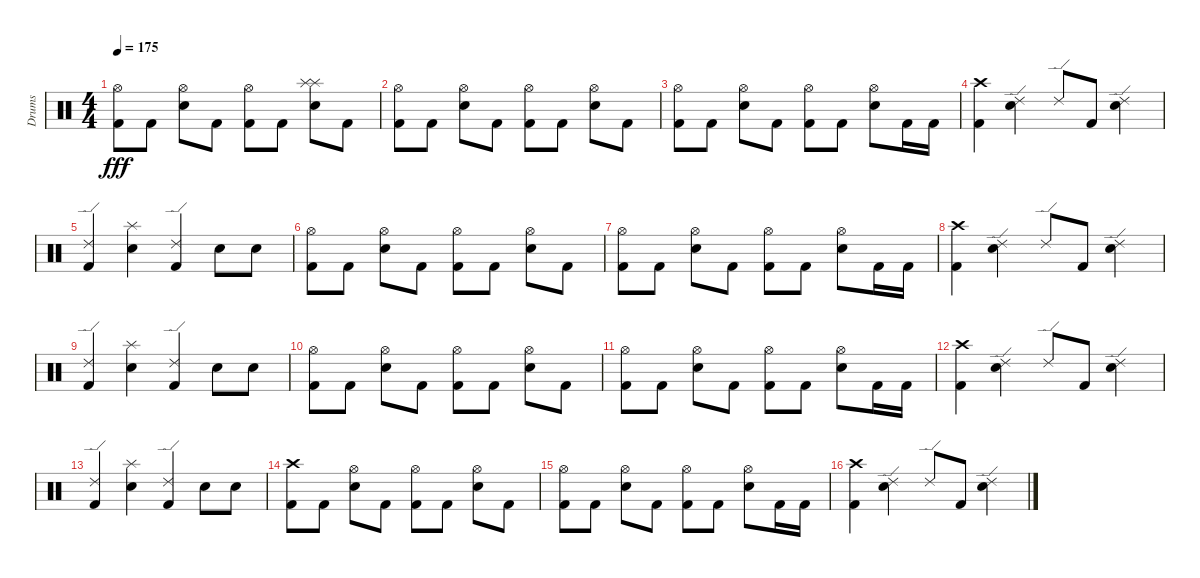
\track ("Drums" "Drums") {instrument percussion}
\staff {score}
\articulation defaults
\ts (4 4)
\tempo 175
\clef neutral
\ks c
("Kick (hit) 2" "Hi-Hat (open)").8{dy fff} "Kick (hit) 2".8 ("Electric Snare (hit)" "Hi-Hat (open)").8 "Kick (hit) 2".8 ("Kick (hit) 2" "Hi-Hat (open)").8 "Kick (hit) 2".8 ("Electric Snare (hit)" "Splash (hit)" "Splash (hit)").8 "Kick (hit) 2".8 |
("Kick (hit) 2" "Hi-Hat (open)").8 "Kick (hit) 2".8 ("Electric Snare (hit)" "Hi-Hat (open)").8 "Kick (hit) 2".8 ("Kick (hit) 2" "Hi-Hat (open)").8 "Kick (hit) 2".8 ("Electric Snare (hit)" "Hi-Hat (open)").8 "Kick (hit) 2".8 |
("Kick (hit) 2" "Hi-Hat (open)").8 "Kick (hit) 2".8 ("Electric Snare (hit)" "Hi-Hat (open)").8 "Kick (hit) 2".8 ("Kick (hit) 2" "Hi-Hat (open)").8 "Kick (hit) 2".8 ("Electric Snare (hit)" "Hi-Hat (open)").8 "Kick (hit) 2".16 "Kick (hit) 2".16 |
("Kick (hit) 2" "Crash high (hit)").4 ("Electric Snare (hit)" "Ride (edge) 2").4 "Ride (edge) 2".8 "Kick (hit) 2".8 ("Electric Snare (hit)" "Ride (edge) 2").4 |
("Kick (hit) 2" "Ride (edge) 2").4 ("Electric Snare (hit)" "Splash (hit)").4 ("Kick (hit) 2" "Ride (edge) 2").4 "Electric Snare (hit)".8 "Electric Snare (hit)".8 |
("Kick (hit) 2" "Hi-Hat (open)").8 "Kick (hit) 2".8 ("Electric Snare (hit)" "Hi-Hat (open)").8 "Kick (hit) 2".8 ("Kick (hit) 2" "Hi-Hat (open)").8 "Kick (hit) 2".8 ("Electric Snare (hit)" "Hi-Hat (open)").8 "Kick (hit) 2".8 |
("Kick (hit) 2" "Hi-Hat (open)").8 "Kick (hit) 2".8 ("Electric Snare (hit)" "Hi-Hat (open)").8 "Kick (hit) 2".8 ("Kick (hit) 2" "Hi-Hat (open)").8 "Kick (hit) 2".8 ("Electric Snare (hit)" "Hi-Hat (open)").8 "Kick (hit) 2".16 "Kick (hit) 2".16 |
("Kick (hit) 2" "Crash high (hit)").4 ("Electric Snare (hit)" "Ride (edge) 2").4 "Ride (edge) 2".8 "Kick (hit) 2".8 ("Electric Snare (hit)" "Ride (edge) 2").4 |
("Kick (hit) 2" "Ride (edge) 2").4 ("Electric Snare (hit)" "Splash (hit)").4 ("Kick (hit) 2" "Ride (edge) 2").4 "Electric Snare (hit)".8 "Electric Snare (hit)".8 |
("Kick (hit) 2" "Hi-Hat (open)").8 "Kick (hit) 2".8 ("Electric Snare (hit)" "Hi-Hat (open)").8 "Kick (hit) 2".8 ("Kick (hit) 2" "Hi-Hat (open)").8 "Kick (hit) 2".8 ("Electric Snare (hit)" "Hi-Hat (open)").8 "Kick (hit) 2".8 |
("Kick (hit) 2" "Hi-Hat (open)").8 "Kick (hit) 2".8 ("Electric Snare (hit)" "Hi-Hat (open)").8 "Kick (hit) 2".8 ("Kick (hit) 2" "Hi-Hat (open)").8 "Kick (hit) 2".8 ("Electric Snare (hit)" "Hi-Hat (open)").8 "Kick (hit) 2".16 "Kick (hit) 2".16 |
("Kick (hit) 2" "Crash high (hit)").4 ("Electric Snare (hit)" "Ride (edge) 2").4 "Ride (edge) 2".8 "Kick (hit) 2".8 ("Electric Snare (hit)" "Ride (edge) 2").4 |
("Kick (hit) 2" "Ride (edge) 2").4 ("Electric Snare (hit)" "Splash (hit)").4 ("Kick (hit) 2" "Ride (edge) 2").4 "Electric Snare (hit)".8 "Electric Snare (hit)".8 |
("Kick (hit) 2" "Crash high (hit)").8 "Kick (hit) 2".8 ("Electric Snare (hit)" "Hi-Hat (open)").8 "Kick (hit) 2".8 ("Kick (hit) 2" "Hi-Hat (open)").8 "Kick (hit) 2".8 ("Electric Snare (hit)" "Hi-Hat (open)").8 "Kick (hit) 2".8 |
("Kick (hit) 2" "Hi-Hat (open)").8 "Kick (hit) 2".8 ("Electric Snare (hit)" "Hi-Hat (open)").8 "Kick (hit) 2".8 ("Kick (hit) 2" "Hi-Hat (open)").8 "Kick (hit) 2".8 ("Electric Snare (hit)" "Hi-Hat (open)").8 "Kick (hit) 2".16 "Kick (hit) 2".16 |
("Kick (hit) 2" "Crash high (hit)").4 ("Electric Snare (hit)" "Ride (edge) 2").4 "Ride (edge) 2".8 "Kick (hit) 2".8 ("Electric Snare (hit)" "Ride (edge) 2").4
